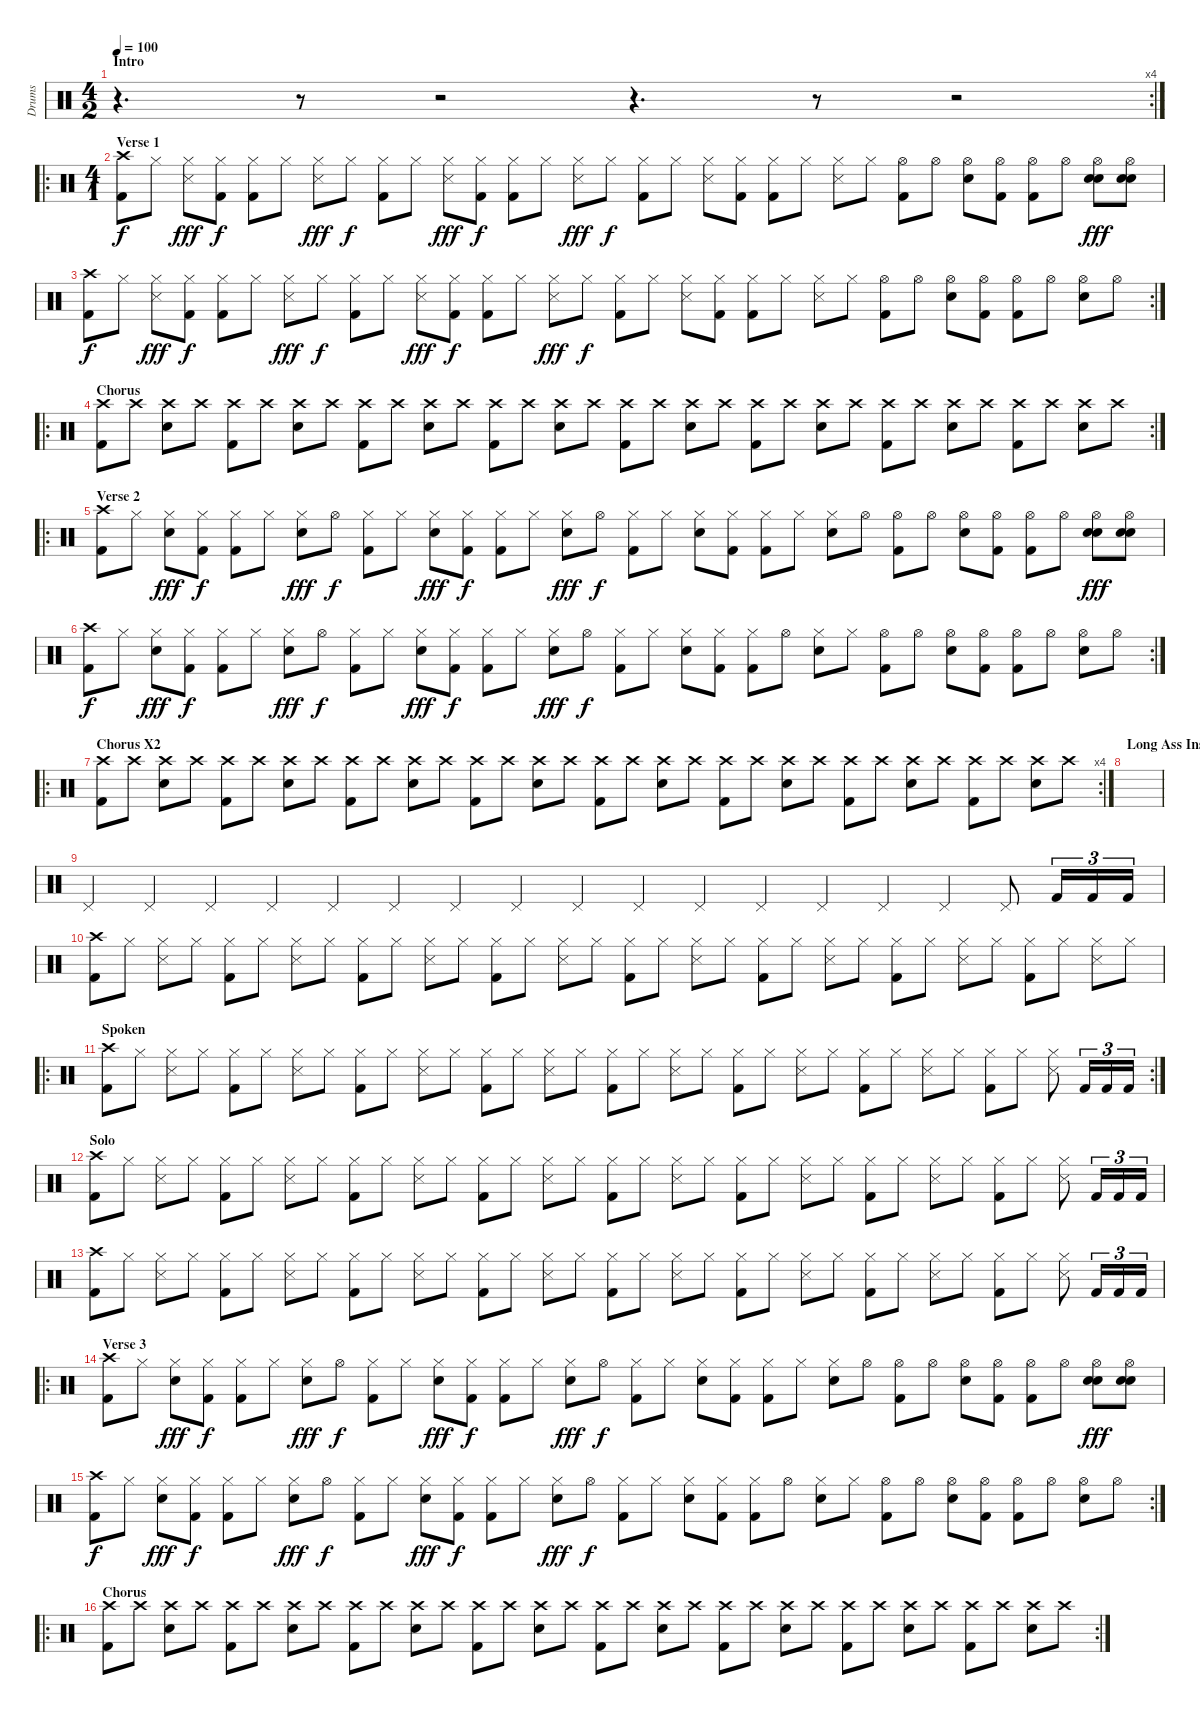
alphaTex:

\track ("Drums" "Drums") {instrument percussion}
\staff {score}
\articulation defaults
\rc 4
\ts (4 2)
\section ("" "Intro")
\tempo 100
\clef neutral
\ks c
r.4{d dy f} r.8 r.2 r.4{d} r.8 r.2 |
\ro
\ts (4 1)
\section ("" "Verse 1")
("Crash high (hit)" "Kick (hit) 2").8 "Hi-Hat (closed)".8 ("Hi-Hat (closed)" "Snare (side stick) 3").8{dy fff} ("Hi-Hat (closed)" "Kick (hit) 2").8{dy f} ("Hi-Hat (closed)" "Kick (hit) 2").8 "Hi-Hat (closed)".8 ("Hi-Hat (closed)" "Snare (side stick) 3").8{dy fff} "Hi-Hat (closed)".8{dy f} ("Hi-Hat (closed)" "Kick (hit) 2").8 "Hi-Hat (closed)".8 ("Hi-Hat (closed)" "Snare (side stick) 3").8{dy fff} ("Hi-Hat (closed)" "Kick (hit) 2").8{dy f} ("Hi-Hat (closed)" "Kick (hit) 2").8 "Hi-Hat (closed)".8 ("Hi-Hat (closed)" "Snare (side stick) 3").8{dy fff} "Hi-Hat (closed)".8{dy f} ("Hi-Hat (closed)" "Kick (hit) 2").8 "Hi-Hat (closed)".8 ("Hi-Hat (closed)" "Snare (side stick) 3").8 ("Hi-Hat (closed)" "Kick (hit) 2").8 ("Hi-Hat (closed)" "Kick (hit) 2").8 "Hi-Hat (closed)".8 ("Hi-Hat (closed)" "Snare (side stick) 3").8 "Hi-Hat (closed)".8 ("Hi-Hat (open)" "Kick (hit) 2").8 "Hi-Hat (open)".8 ("Hi-Hat (open)" "Electric Snare (hit)").8 ("Hi-Hat (open)" "Kick (hit) 2").8 ("Hi-Hat (open)" "Kick (hit) 2").8 "Hi-Hat (open)".8 ("Hi-Hat (open)" "Electric Snare (hit)" "Electric Snare (hit)").8{dy fff} ("Hi-Hat (open)" "Electric Snare (hit)" "Electric Snare (hit)").8 |
\rc 2
("Crash high (hit)" "Kick (hit) 2").8{dy f} "Hi-Hat (closed)".8 ("Hi-Hat (closed)" "Snare (side stick) 3").8{dy fff} ("Hi-Hat (closed)" "Kick (hit) 2").8{dy f} ("Hi-Hat (closed)" "Kick (hit) 2").8 "Hi-Hat (closed)".8 ("Hi-Hat (closed)" "Snare (side stick) 3").8{dy fff} "Hi-Hat (closed)".8{dy f} ("Hi-Hat (closed)" "Kick (hit) 2").8 "Hi-Hat (closed)".8 ("Hi-Hat (closed)" "Snare (side stick) 3").8{dy fff} ("Hi-Hat (closed)" "Kick (hit) 2").8{dy f} ("Hi-Hat (closed)" "Kick (hit) 2").8 "Hi-Hat (closed)".8 ("Hi-Hat (closed)" "Snare (side stick) 3").8{dy fff} "Hi-Hat (closed)".8{dy f} ("Hi-Hat (closed)" "Kick (hit) 2").8 "Hi-Hat (closed)".8 ("Hi-Hat (closed)" "Snare (side stick) 3").8 ("Hi-Hat (closed)" "Kick (hit) 2").8 ("Hi-Hat (closed)" "Kick (hit) 2").8 "Hi-Hat (closed)".8 ("Hi-Hat (closed)" "Snare (side stick) 3").8 "Hi-Hat (closed)".8 ("Hi-Hat (open)" "Kick (hit) 2").8 "Hi-Hat (open)".8 ("Hi-Hat (open)" "Electric Snare (hit)").8 ("Hi-Hat (open)" "Kick (hit) 2").8 ("Hi-Hat (open)" "Kick (hit) 2").8 "Hi-Hat (open)".8 ("Hi-Hat (open)" "Electric Snare (hit)").8 "Hi-Hat (open)".8 |
\ro
\rc 2
\section ("" "Chorus")
("Crash high (hit)" "Kick (hit) 2").8 "Crash high (hit)".8 ("Crash high (hit)" "Electric Snare (hit)").8 "Crash high (hit)".8 ("Crash high (hit)" "Kick (hit) 2").8 "Crash high (hit)".8 ("Crash high (hit)" "Electric Snare (hit)").8 "Crash high (hit)".8 ("Crash high (hit)" "Kick (hit) 2").8 "Crash high (hit)".8 ("Crash high (hit)" "Electric Snare (hit)").8 "Crash high (hit)".8 ("Crash high (hit)" "Kick (hit) 2").8 "Crash high (hit)".8 ("Crash high (hit)" "Electric Snare (hit)").8 "Crash high (hit)".8 ("Crash high (hit)" "Kick (hit) 2").8 "Crash high (hit)".8 ("Crash high (hit)" "Electric Snare (hit)").8 "Crash high (hit)".8 ("Crash high (hit)" "Kick (hit) 2").8 "Crash high (hit)".8 ("Crash high (hit)" "Electric Snare (hit)").8 "Crash high (hit)".8 ("Crash high (hit)" "Kick (hit) 2").8 "Crash high (hit)".8 ("Crash high (hit)" "Electric Snare (hit)").8 "Crash high (hit)".8 ("Crash high (hit)" "Kick (hit) 2").8 "Crash high (hit)".8 ("Crash high (hit)" "Electric Snare (hit)").8 "Crash high (hit)".8 |
\ro
\section ("" "Verse 2")
("Crash high (hit)" "Kick (hit) 2").8 "Hi-Hat (closed)".8 ("Hi-Hat (closed)" "Electric Snare (hit)").8{dy fff} ("Hi-Hat (closed)" "Kick (hit) 2").8{dy f} ("Hi-Hat (closed)" "Kick (hit) 2").8 "Hi-Hat (closed)".8 ("Hi-Hat (closed)" "Electric Snare (hit)").8{dy fff} "Hi-Hat (open)".8{dy f} ("Hi-Hat (closed)" "Kick (hit) 2").8 "Hi-Hat (closed)".8 ("Hi-Hat (closed)" "Electric Snare (hit)").8{dy fff} ("Hi-Hat (closed)" "Kick (hit) 2").8{dy f} ("Hi-Hat (closed)" "Kick (hit) 2").8 "Hi-Hat (closed)".8 ("Hi-Hat (closed)" "Electric Snare (hit)").8{dy fff} "Hi-Hat (open)".8{dy f} ("Hi-Hat (closed)" "Kick (hit) 2").8 "Hi-Hat (closed)".8 ("Hi-Hat (closed)" "Electric Snare (hit)").8 ("Hi-Hat (closed)" "Kick (hit) 2").8 ("Hi-Hat (closed)" "Kick (hit) 2").8 "Hi-Hat (closed)".8 ("Hi-Hat (closed)" "Electric Snare (hit)").8 "Hi-Hat (open)".8 ("Hi-Hat (open)" "Kick (hit) 2").8 "Hi-Hat (open)".8 ("Hi-Hat (open)" "Electric Snare (hit)").8 ("Hi-Hat (open)" "Kick (hit) 2").8 ("Hi-Hat (open)" "Kick (hit) 2").8 "Hi-Hat (open)".8 ("Hi-Hat (open)" "Electric Snare (hit)" "Electric Snare (hit)").8{dy fff} ("Hi-Hat (open)" "Electric Snare (hit)" "Electric Snare (hit)").8 |
\rc 2
("Crash high (hit)" "Kick (hit) 2").8{dy f} "Hi-Hat (closed)".8 ("Hi-Hat (closed)" "Electric Snare (hit)").8{dy fff} ("Hi-Hat (closed)" "Kick (hit) 2").8{dy f} ("Hi-Hat (closed)" "Kick (hit) 2").8 "Hi-Hat (closed)".8 ("Hi-Hat (closed)" "Electric Snare (hit)").8{dy fff} "Hi-Hat (open)".8{dy f} ("Hi-Hat (closed)" "Kick (hit) 2").8 "Hi-Hat (closed)".8 ("Hi-Hat (closed)" "Electric Snare (hit)").8{dy fff} ("Hi-Hat (closed)" "Kick (hit) 2").8{dy f} ("Hi-Hat (closed)" "Kick (hit) 2").8 "Hi-Hat (closed)".8 ("Hi-Hat (closed)" "Electric Snare (hit)").8{dy fff} "Hi-Hat (open)".8{dy f} ("Hi-Hat (closed)" "Kick (hit) 2").8 "Hi-Hat (closed)".8 ("Hi-Hat (closed)" "Electric Snare (hit)").8 ("Hi-Hat (closed)" "Kick (hit) 2").8 ("Hi-Hat (closed)" "Kick (hit) 2").8 "Hi-Hat (open)".8 ("Hi-Hat (closed)" "Electric Snare (hit)").8 "Hi-Hat (closed)".8 ("Hi-Hat (open)" "Kick (hit) 2").8 "Hi-Hat (open)".8 ("Hi-Hat (open)" "Electric Snare (hit)").8 ("Hi-Hat (open)" "Kick (hit) 2").8 ("Hi-Hat (open)" "Kick (hit) 2").8 "Hi-Hat (open)".8 ("Hi-Hat (open)" "Electric Snare (hit)").8 "Hi-Hat (open)".8 |
\ro
\rc 4
\section ("" "Chorus X2")
("Crash high (hit)" "Kick (hit) 2").8 "Crash high (hit)".8 ("Crash high (hit)" "Electric Snare (hit)").8 "Crash high (hit)".8 ("Crash high (hit)" "Kick (hit) 2").8 "Crash high (hit)".8 ("Crash high (hit)" "Electric Snare (hit)").8 "Crash high (hit)".8 ("Crash high (hit)" "Kick (hit) 2").8 "Crash high (hit)".8 ("Crash high (hit)" "Electric Snare (hit)").8 "Crash high (hit)".8 ("Crash high (hit)" "Kick (hit) 2").8 "Crash high (hit)".8 ("Crash high (hit)" "Electric Snare (hit)").8 "Crash high (hit)".8 ("Crash high (hit)" "Kick (hit) 2").8 "Crash high (hit)".8 ("Crash high (hit)" "Electric Snare (hit)").8 "Crash high (hit)".8 ("Crash high (hit)" "Kick (hit) 2").8 "Crash high (hit)".8 ("Crash high (hit)" "Electric Snare (hit)").8 "Crash high (hit)".8 ("Crash high (hit)" "Kick (hit) 2").8 "Crash high (hit)".8 ("Crash high (hit)" "Electric Snare (hit)").8 "Crash high (hit)".8 ("Crash high (hit)" "Kick (hit) 2").8 "Crash high (hit)".8 ("Crash high (hit)" "Electric Snare (hit)").8 "Crash high (hit)".8 |
\section ("" "Long Ass Instrumental")
|
"Pedal Hi-Hat (hit)".4 "Pedal Hi-Hat (hit)".4 "Pedal Hi-Hat (hit)".4 "Pedal Hi-Hat (hit)".4 "Pedal Hi-Hat (hit)".4 "Pedal Hi-Hat (hit)".4 "Pedal Hi-Hat (hit)".4 "Pedal Hi-Hat (hit)".4 "Pedal Hi-Hat (hit)".4 "Pedal Hi-Hat (hit)".4 "Pedal Hi-Hat (hit)".4 "Pedal Hi-Hat (hit)".4 "Pedal Hi-Hat (hit)".4 "Pedal Hi-Hat (hit)".4 "Pedal Hi-Hat (hit)".4 "Pedal Hi-Hat (hit)".8 "Kick (hit) 2".16{tu (3 2)} "Kick (hit) 2".16{tu (3 2)} "Kick (hit) 2".16{tu (3 2)} |
("Crash high (hit)" "Kick (hit) 2").8 "Hi-Hat (closed)".8 ("Hi-Hat (closed)" "Snare (side stick) 3").8 "Hi-Hat (closed)".8 ("Hi-Hat (closed)" "Kick (hit) 2").8 "Hi-Hat (closed)".8 ("Hi-Hat (closed)" "Snare (side stick) 3").8 "Hi-Hat (closed)".8 ("Hi-Hat (closed)" "Kick (hit) 2").8 "Hi-Hat (closed)".8 ("Hi-Hat (closed)" "Snare (side stick) 3").8 "Hi-Hat (closed)".8 ("Hi-Hat (closed)" "Kick (hit) 2").8 "Hi-Hat (closed)".8 ("Hi-Hat (closed)" "Snare (side stick) 3").8 "Hi-Hat (closed)".8 ("Hi-Hat (closed)" "Kick (hit) 2").8 "Hi-Hat (closed)".8 ("Hi-Hat (closed)" "Snare (side stick) 3").8 "Hi-Hat (closed)".8 ("Hi-Hat (closed)" "Kick (hit) 2").8 "Hi-Hat (closed)".8 ("Hi-Hat (closed)" "Snare (side stick) 3").8 "Hi-Hat (closed)".8 ("Hi-Hat (closed)" "Kick (hit) 2").8 "Hi-Hat (closed)".8 ("Hi-Hat (closed)" "Snare (side stick) 3").8 "Hi-Hat (closed)".8 ("Hi-Hat (closed)" "Kick (hit) 2").8 "Hi-Hat (closed)".8 ("Hi-Hat (closed)" "Snare (side stick) 3").8 "Hi-Hat (closed)".8 |
\ro
\rc 2
\section ("" "Spoken")
("Crash high (hit)" "Kick (hit) 2").8 "Hi-Hat (closed)".8 ("Hi-Hat (closed)" "Snare (side stick) 3").8 "Hi-Hat (closed)".8 ("Hi-Hat (closed)" "Kick (hit) 2").8 "Hi-Hat (closed)".8 ("Hi-Hat (closed)" "Snare (side stick) 3").8 "Hi-Hat (closed)".8 ("Hi-Hat (closed)" "Kick (hit) 2").8 "Hi-Hat (closed)".8 ("Hi-Hat (closed)" "Snare (side stick) 3").8 "Hi-Hat (closed)".8 ("Hi-Hat (closed)" "Kick (hit) 2").8 "Hi-Hat (closed)".8 ("Hi-Hat (closed)" "Snare (side stick) 3").8 "Hi-Hat (closed)".8 ("Hi-Hat (closed)" "Kick (hit) 2").8 "Hi-Hat (closed)".8 ("Hi-Hat (closed)" "Snare (side stick) 3").8 "Hi-Hat (closed)".8 ("Hi-Hat (closed)" "Kick (hit) 2").8 "Hi-Hat (closed)".8 ("Hi-Hat (closed)" "Snare (side stick) 3").8 "Hi-Hat (closed)".8 ("Hi-Hat (closed)" "Kick (hit) 2").8 "Hi-Hat (closed)".8 ("Hi-Hat (closed)" "Snare (side stick) 3").8 "Hi-Hat (closed)".8 ("Hi-Hat (closed)" "Kick (hit) 2").8 "Hi-Hat (closed)".8 ("Hi-Hat (closed)" "Snare (side stick) 3").8 "Kick (hit) 2".16{tu (3 2)} "Kick (hit) 2".16{tu (3 2)} "Kick (hit) 2".16{tu (3 2)} |
\section ("" "Solo")
("Crash high (hit)" "Kick (hit) 2").8 "Hi-Hat (closed)".8 ("Hi-Hat (closed)" "Snare (side stick) 3").8 "Hi-Hat (closed)".8 ("Hi-Hat (closed)" "Kick (hit) 2").8 "Hi-Hat (closed)".8 ("Hi-Hat (closed)" "Snare (side stick) 3").8 "Hi-Hat (closed)".8 ("Hi-Hat (closed)" "Kick (hit) 2").8 "Hi-Hat (closed)".8 ("Hi-Hat (closed)" "Snare (side stick) 3").8 "Hi-Hat (closed)".8 ("Hi-Hat (closed)" "Kick (hit) 2").8 "Hi-Hat (closed)".8 ("Hi-Hat (closed)" "Snare (side stick) 3").8 "Hi-Hat (closed)".8 ("Hi-Hat (closed)" "Kick (hit) 2").8 "Hi-Hat (closed)".8 ("Hi-Hat (closed)" "Snare (side stick) 3").8 "Hi-Hat (closed)".8 ("Hi-Hat (closed)" "Kick (hit) 2").8 "Hi-Hat (closed)".8 ("Hi-Hat (closed)" "Snare (side stick) 3").8 "Hi-Hat (closed)".8 ("Hi-Hat (closed)" "Kick (hit) 2").8 "Hi-Hat (closed)".8 ("Hi-Hat (closed)" "Snare (side stick) 3").8 "Hi-Hat (closed)".8 ("Hi-Hat (closed)" "Kick (hit) 2").8 "Hi-Hat (closed)".8 ("Hi-Hat (closed)" "Snare (side stick) 3").8 "Kick (hit) 2".16{tu (3 2)} "Kick (hit) 2".16{tu (3 2)} "Kick (hit) 2".16{tu (3 2)} |
("Crash high (hit)" "Kick (hit) 2").8 "Hi-Hat (closed)".8 ("Hi-Hat (closed)" "Snare (side stick) 3").8 "Hi-Hat (closed)".8 ("Hi-Hat (closed)" "Kick (hit) 2").8 "Hi-Hat (closed)".8 ("Hi-Hat (closed)" "Snare (side stick) 3").8 "Hi-Hat (closed)".8 ("Hi-Hat (closed)" "Kick (hit) 2").8 "Hi-Hat (closed)".8 ("Hi-Hat (closed)" "Snare (side stick) 3").8 "Hi-Hat (closed)".8 ("Hi-Hat (closed)" "Kick (hit) 2").8 "Hi-Hat (closed)".8 ("Hi-Hat (closed)" "Snare (side stick) 3").8 "Hi-Hat (closed)".8 ("Hi-Hat (closed)" "Kick (hit) 2").8 "Hi-Hat (closed)".8 ("Hi-Hat (closed)" "Snare (side stick) 3").8 "Hi-Hat (closed)".8 ("Hi-Hat (closed)" "Kick (hit) 2").8 "Hi-Hat (closed)".8 ("Hi-Hat (closed)" "Snare (side stick) 3").8 "Hi-Hat (closed)".8 ("Hi-Hat (closed)" "Kick (hit) 2").8 "Hi-Hat (closed)".8 ("Hi-Hat (closed)" "Snare (side stick) 3").8 "Hi-Hat (closed)".8 ("Hi-Hat (closed)" "Kick (hit) 2").8 "Hi-Hat (closed)".8 ("Hi-Hat (closed)" "Snare (side stick) 3").8 "Kick (hit) 2".16{tu (3 2)} "Kick (hit) 2".16{tu (3 2)} "Kick (hit) 2".16{tu (3 2)} |
\ro
\section ("" "Verse 3")
("Crash high (hit)" "Kick (hit) 2").8 "Hi-Hat (closed)".8 ("Hi-Hat (closed)" "Electric Snare (hit)").8{dy fff} ("Hi-Hat (closed)" "Kick (hit) 2").8{dy f} ("Hi-Hat (closed)" "Kick (hit) 2").8 "Hi-Hat (closed)".8 ("Hi-Hat (closed)" "Electric Snare (hit)").8{dy fff} "Hi-Hat (open)".8{dy f} ("Hi-Hat (closed)" "Kick (hit) 2").8 "Hi-Hat (closed)".8 ("Hi-Hat (closed)" "Electric Snare (hit)").8{dy fff} ("Hi-Hat (closed)" "Kick (hit) 2").8{dy f} ("Hi-Hat (closed)" "Kick (hit) 2").8 "Hi-Hat (closed)".8 ("Hi-Hat (closed)" "Electric Snare (hit)").8{dy fff} "Hi-Hat (open)".8{dy f} ("Hi-Hat (closed)" "Kick (hit) 2").8 "Hi-Hat (closed)".8 ("Hi-Hat (closed)" "Electric Snare (hit)").8 ("Hi-Hat (closed)" "Kick (hit) 2").8 ("Hi-Hat (closed)" "Kick (hit) 2").8 "Hi-Hat (closed)".8 ("Hi-Hat (closed)" "Electric Snare (hit)").8 "Hi-Hat (open)".8 ("Hi-Hat (open)" "Kick (hit) 2").8 "Hi-Hat (open)".8 ("Hi-Hat (open)" "Electric Snare (hit)").8 ("Hi-Hat (open)" "Kick (hit) 2").8 ("Hi-Hat (open)" "Kick (hit) 2").8 "Hi-Hat (open)".8 ("Hi-Hat (open)" "Electric Snare (hit)" "Electric Snare (hit)").8{dy fff} ("Hi-Hat (open)" "Electric Snare (hit)" "Electric Snare (hit)").8 |
\rc 2
("Crash high (hit)" "Kick (hit) 2").8{dy f} "Hi-Hat (closed)".8 ("Hi-Hat (closed)" "Electric Snare (hit)").8{dy fff} ("Hi-Hat (closed)" "Kick (hit) 2").8{dy f} ("Hi-Hat (closed)" "Kick (hit) 2").8 "Hi-Hat (closed)".8 ("Hi-Hat (closed)" "Electric Snare (hit)").8{dy fff} "Hi-Hat (open)".8{dy f} ("Hi-Hat (closed)" "Kick (hit) 2").8 "Hi-Hat (closed)".8 ("Hi-Hat (closed)" "Electric Snare (hit)").8{dy fff} ("Hi-Hat (closed)" "Kick (hit) 2").8{dy f} ("Hi-Hat (closed)" "Kick (hit) 2").8 "Hi-Hat (closed)".8 ("Hi-Hat (closed)" "Electric Snare (hit)").8{dy fff} "Hi-Hat (open)".8{dy f} ("Hi-Hat (closed)" "Kick (hit) 2").8 "Hi-Hat (closed)".8 ("Hi-Hat (closed)" "Electric Snare (hit)").8 ("Hi-Hat (closed)" "Kick (hit) 2").8 ("Hi-Hat (closed)" "Kick (hit) 2").8 "Hi-Hat (open)".8 ("Hi-Hat (closed)" "Electric Snare (hit)").8 "Hi-Hat (closed)".8 ("Hi-Hat (open)" "Kick (hit) 2").8 "Hi-Hat (open)".8 ("Hi-Hat (open)" "Electric Snare (hit)").8 ("Hi-Hat (open)" "Kick (hit) 2").8 ("Hi-Hat (open)" "Kick (hit) 2").8 "Hi-Hat (open)".8 ("Hi-Hat (open)" "Electric Snare (hit)").8 "Hi-Hat (open)".8 |
\ro
\rc 2
\section ("" "Chorus")
("Crash high (hit)" "Kick (hit) 2").8 "Crash high (hit)".8 ("Crash high (hit)" "Electric Snare (hit)").8 "Crash high (hit)".8 ("Crash high (hit)" "Kick (hit) 2").8 "Crash high (hit)".8 ("Crash high (hit)" "Electric Snare (hit)").8 "Crash high (hit)".8 ("Crash high (hit)" "Kick (hit) 2").8 "Crash high (hit)".8 ("Crash high (hit)" "Electric Snare (hit)").8 "Crash high (hit)".8 ("Crash high (hit)" "Kick (hit) 2").8 "Crash high (hit)".8 ("Crash high (hit)" "Electric Snare (hit)").8 "Crash high (hit)".8 ("Crash high (hit)" "Kick (hit) 2").8 "Crash high (hit)".8 ("Crash high (hit)" "Electric Snare (hit)").8 "Crash high (hit)".8 ("Crash high (hit)" "Kick (hit) 2").8 "Crash high (hit)".8 ("Crash high (hit)" "Electric Snare (hit)").8 "Crash high (hit)".8 ("Crash high (hit)" "Kick (hit) 2").8 "Crash high (hit)".8 ("Crash high (hit)" "Electric Snare (hit)").8 "Crash high (hit)".8 ("Crash high (hit)" "Kick (hit) 2").8 "Crash high (hit)".8 ("Crash high (hit)" "Electric Snare (hit)").8 "Crash high (hit)".8
